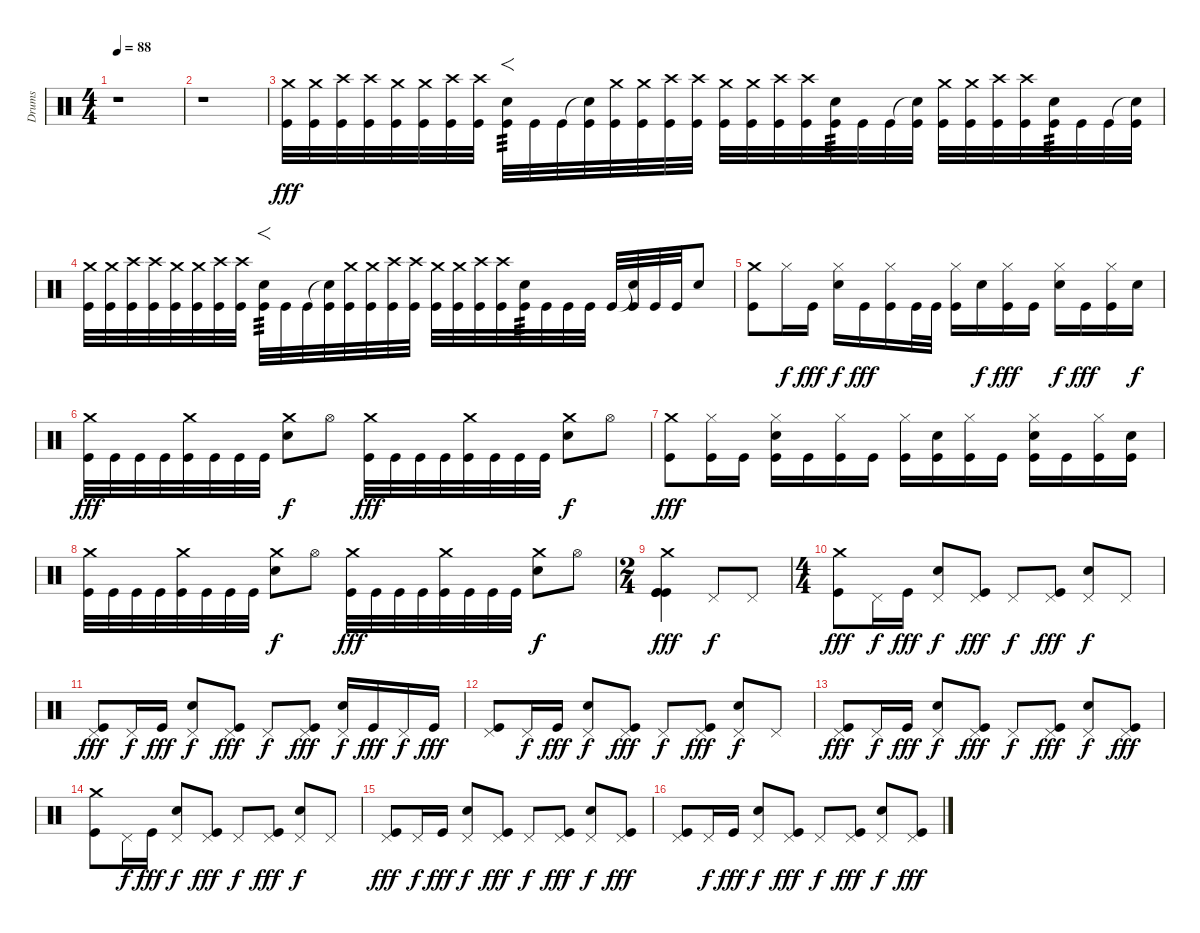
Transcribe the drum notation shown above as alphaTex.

\track ("Drums" "Drums") {instrument percussion}
\staff {score}
\articulation defaults
\ts (4 4)
\tempo 88
\clef neutral
\ks c
r.1{dy fff} |
r.1 |
("Crash medium (hit)" "Kick (hit)").32 ("Crash medium (hit)" "Kick (hit)").32 ("Crash high (hit)" "Kick (hit)").32 ("Crash high (hit)" "Kick (hit)").32 ("Crash medium (hit)" "Kick (hit)").32 ("Crash medium (hit)" "Kick (hit)").32 ("Crash high (hit)" "Kick (hit)").32 ("Crash high (hit)" "Kick (hit)").32 ("Snare (hit) 2" "Kick (hit)").32{f tp 3} "Kick (hit)".32 "Kick (hit)".32 ("Snare (hit)"{t} "Kick (hit)").32 ("Crash medium (hit)" "Kick (hit)").32 ("Crash medium (hit)" "Kick (hit)").32 ("Crash high (hit)" "Kick (hit)").32 ("Crash high (hit)" "Kick (hit)").32 ("Crash medium (hit)" "Kick (hit)").32 ("Crash medium (hit)" "Kick (hit)").32 ("Crash high (hit)" "Kick (hit)").32 ("Crash high (hit)" "Kick (hit)").32 ("Snare (hit) 2" "Kick (hit)").32{tp 3} "Kick (hit)".32 "Kick (hit)".32 ("Snare (hit)"{t} "Kick (hit)").32 ("Crash medium (hit)" "Kick (hit)").32 ("Crash medium (hit)" "Kick (hit)").32 ("Crash high (hit)" "Kick (hit)").32 ("Crash high (hit)" "Kick (hit)").32 ("Snare (hit) 2" "Kick (hit)").32{tp 3} "Kick (hit)".32 "Kick (hit)".32 ("Snare (hit)"{t} "Kick (hit)").32 |
("Crash medium (hit)" "Kick (hit)").32 ("Crash medium (hit)" "Kick (hit)").32 ("Crash high (hit)" "Kick (hit)").32 ("Crash high (hit)" "Kick (hit)").32 ("Crash medium (hit)" "Kick (hit)").32 ("Crash medium (hit)" "Kick (hit)").32 ("Crash high (hit)" "Kick (hit)").32 ("Crash high (hit)" "Kick (hit)").32 ("Snare (hit) 2" "Kick (hit)").32{f tp 3} "Kick (hit)".32 "Kick (hit)".32 ("Snare (hit)"{t} "Kick (hit)").32 ("Crash medium (hit)" "Kick (hit)").32 ("Crash medium (hit)" "Kick (hit)").32 ("Crash high (hit)" "Kick (hit)").32 ("Crash high (hit)" "Kick (hit)").32 ("Crash medium (hit)" "Kick (hit)").32 ("Crash medium (hit)" "Kick (hit)").32 ("Crash high (hit)" "Kick (hit)").32 ("Crash high (hit)" "Kick (hit)").32 ("Snare (hit) 2" "Kick (hit)").32{tp 3} "Kick (hit)".32 "Kick (hit)".32 "Kick (hit)".32 "Kick (hit)".32 ("Snare (hit)"{t} "Kick (hit)").32 "Kick (hit)".32 "Kick (hit)".32 "Snare (hit) 2".8 |
("Crash medium (hit)" "Kick (hit)").8 "Hi-Hat (closed)".16{dy f} "Kick (hit)".16{dy fff} ("Hi-Hat (closed)" "Snare (hit) 2").16{dy f} "Kick (hit)".16{dy fff} ("Hi-Hat (closed)" "Kick (hit)").16 "Kick (hit)".32 "Kick (hit)".32 ("Hi-Hat (closed)" "Kick (hit)").16 "Snare (hit) 2".16{dy f} ("Hi-Hat (closed)" "Kick (hit)").16{dy fff} "Kick (hit)".16 ("Hi-Hat (closed)" "Snare (hit) 2").16{dy f} "Kick (hit)".16{dy fff} ("Hi-Hat (closed)" "Kick (hit)").16 "Snare (hit) 2".16{dy f} |
("Crash medium (hit)" "Kick (hit)").32{dy fff} "Kick (hit)".32 "Kick (hit)".32 "Kick (hit)".32 ("Crash medium (hit)" "Kick (hit)").32 "Kick (hit)".32 "Kick (hit)".32 "Kick (hit)".32 ("Crash medium (hit)" "Snare (hit) 2").8{dy f} "Hi-Hat (open)".8 ("Crash medium (hit)" "Kick (hit)").32{dy fff} "Kick (hit)".32 "Kick (hit)".32 "Kick (hit)".32 ("Crash medium (hit)" "Kick (hit)").32 "Kick (hit)".32 "Kick (hit)".32 "Kick (hit)".32 ("Crash medium (hit)" "Snare (hit) 2").8{dy f} "Hi-Hat (open)".8 |
("Crash medium (hit)" "Kick (hit)").8{dy fff} ("Hi-Hat (closed)" "Kick (hit)").16 "Kick (hit)".16 ("Hi-Hat (closed)" "Snare (hit) 2" "Kick (hit)").16 "Kick (hit)".16 ("Hi-Hat (closed)" "Kick (hit)").16 "Kick (hit)".16 ("Hi-Hat (closed)" "Kick (hit)").16 ("Snare (hit) 2" "Kick (hit)").16 ("Hi-Hat (closed)" "Kick (hit)").16 "Kick (hit)".16 ("Hi-Hat (closed)" "Snare (hit) 2" "Kick (hit)").16 "Kick (hit)".16 ("Hi-Hat (closed)" "Kick (hit)").16 ("Snare (hit) 2" "Kick (hit)").16 |
("Crash medium (hit)" "Kick (hit)").32 "Kick (hit)".32 "Kick (hit)".32 "Kick (hit)".32 ("Crash medium (hit)" "Kick (hit)").32 "Kick (hit)".32 "Kick (hit)".32 "Kick (hit)".32 ("Crash medium (hit)" "Snare (hit) 2").8{dy f} "Hi-Hat (open)".8 ("Crash medium (hit)" "Kick (hit)").32{dy fff} "Kick (hit)".32 "Kick (hit)".32 "Kick (hit)".32 ("Crash medium (hit)" "Kick (hit)").32 "Kick (hit)".32 "Kick (hit)".32 "Kick (hit)".32 ("Crash medium (hit)" "Snare (hit) 2").8{dy f} "Hi-Hat (open)".8 |
\ts (2 4)
("Crash medium (hit)" "Kick (hit)" "Kick (hit)" "Kick (hit)").4{dy fff} "Pedal Hi-Hat (hit)".8{dy f} "Pedal Hi-Hat (hit)".8 |
\ts (4 4)
("Crash medium (hit)" "Kick (hit)").8{dy fff} "Pedal Hi-Hat (hit)".16{dy f} "Kick (hit)".16{dy fff} ("Pedal Hi-Hat (hit)" "Snare (hit) 2").8{dy f} ("Pedal Hi-Hat (hit)" "Kick (hit)").8{dy fff} "Pedal Hi-Hat (hit)".8{dy f} ("Pedal Hi-Hat (hit)" "Kick (hit)").8{dy fff} ("Pedal Hi-Hat (hit)" "Snare (hit) 2").8{dy f} "Pedal Hi-Hat (hit)".8 |
("Pedal Hi-Hat (hit)" "Kick (hit)").8{dy fff} "Pedal Hi-Hat (hit)".16{dy f} "Kick (hit)".16{dy fff} ("Pedal Hi-Hat (hit)" "Snare (hit) 2").8{dy f} ("Pedal Hi-Hat (hit)" "Kick (hit)").8{dy fff} "Pedal Hi-Hat (hit)".8{dy f} ("Pedal Hi-Hat (hit)" "Kick (hit)").8{dy fff} ("Pedal Hi-Hat (hit)" "Snare (hit) 2").16{dy f} "Kick (hit)".16{dy fff} "Pedal Hi-Hat (hit)".16{dy f} "Kick (hit)".16{dy fff} |
("Pedal Hi-Hat (hit)" "Kick (hit)").8 "Pedal Hi-Hat (hit)".16{dy f} "Kick (hit)".16{dy fff} ("Pedal Hi-Hat (hit)" "Snare (hit) 2").8{dy f} ("Pedal Hi-Hat (hit)" "Kick (hit)").8{dy fff} "Pedal Hi-Hat (hit)".8{dy f} ("Pedal Hi-Hat (hit)" "Kick (hit)").8{dy fff} ("Pedal Hi-Hat (hit)" "Snare (hit) 2").8{dy f} "Pedal Hi-Hat (hit)".8 |
("Pedal Hi-Hat (hit)" "Kick (hit)").8{dy fff} "Pedal Hi-Hat (hit)".16{dy f} "Kick (hit)".16{dy fff} ("Pedal Hi-Hat (hit)" "Snare (hit) 2").8{dy f} ("Pedal Hi-Hat (hit)" "Kick (hit)").8{dy fff} "Pedal Hi-Hat (hit)".8{dy f} ("Pedal Hi-Hat (hit)" "Kick (hit)").8{dy fff} ("Pedal Hi-Hat (hit)" "Snare (hit) 2").8{dy f} ("Pedal Hi-Hat (hit)" "Kick (hit)").8{dy fff} |
("Crash medium (hit)" "Kick (hit)").8 "Pedal Hi-Hat (hit)".16{dy f} "Kick (hit)".16{dy fff} ("Pedal Hi-Hat (hit)" "Snare (hit) 2").8{dy f} ("Pedal Hi-Hat (hit)" "Kick (hit)").8{dy fff} "Pedal Hi-Hat (hit)".8{dy f} ("Pedal Hi-Hat (hit)" "Kick (hit)").8{dy fff} ("Pedal Hi-Hat (hit)" "Snare (hit) 2").8{dy f} "Pedal Hi-Hat (hit)".8 |
("Pedal Hi-Hat (hit)" "Kick (hit)").8{dy fff} "Pedal Hi-Hat (hit)".16{dy f} "Kick (hit)".16{dy fff} ("Pedal Hi-Hat (hit)" "Snare (hit) 2").8{dy f} ("Pedal Hi-Hat (hit)" "Kick (hit)").8{dy fff} "Pedal Hi-Hat (hit)".8{dy f} ("Pedal Hi-Hat (hit)" "Kick (hit)").8{dy fff} ("Pedal Hi-Hat (hit)" "Snare (hit) 2").8{dy f} ("Pedal Hi-Hat (hit)" "Kick (hit)").8{dy fff} |
("Pedal Hi-Hat (hit)" "Kick (hit)").8 "Pedal Hi-Hat (hit)".16{dy f} "Kick (hit)".16{dy fff} ("Pedal Hi-Hat (hit)" "Snare (hit) 2").8{dy f} ("Pedal Hi-Hat (hit)" "Kick (hit)").8{dy fff} "Pedal Hi-Hat (hit)".8{dy f} ("Pedal Hi-Hat (hit)" "Kick (hit)").8{dy fff} ("Pedal Hi-Hat (hit)" "Snare (hit) 2").8{dy f} ("Pedal Hi-Hat (hit)" "Kick (hit)").8{dy fff}
